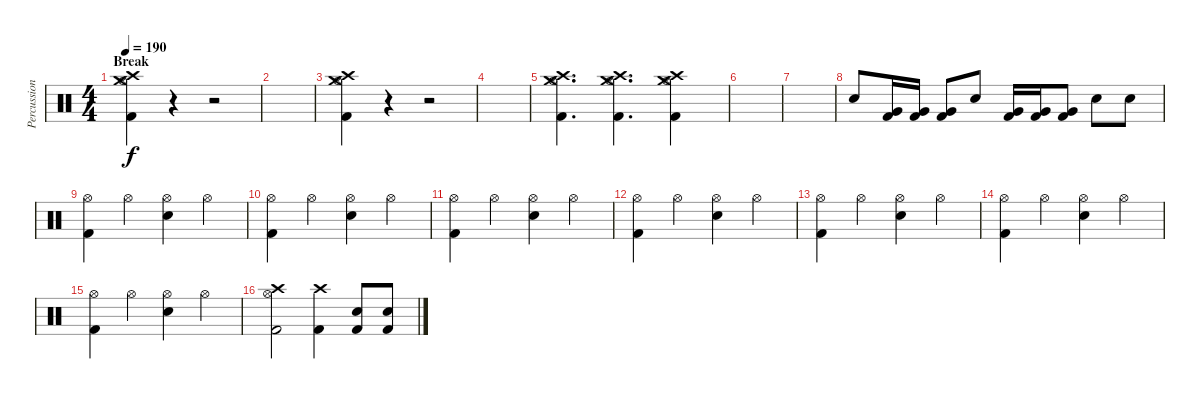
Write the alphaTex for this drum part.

\track ("Percussion" "Percussion") {instrument percussion}
\staff {score}
\articulation defaults
\ts (4 4)
\section ("" "Break")
\tempo 190
\clef neutral
\ks c
("Hi-Hat (open)" "Kick (hit) 2" "Crash medium (hit)" "Crash high (hit)").4{dy f} r.4 r.2 |
|
("Hi-Hat (open)" "Kick (hit) 2" "Crash medium (hit)" "Crash high (hit)").4 r.4 r.2 |
|
("Hi-Hat (open)" "Kick (hit) 2" "Crash medium (hit)" "Crash high (hit)").4{d} ("Hi-Hat (open)" "Kick (hit) 2" "Crash medium (hit)" "Crash high (hit)").4{d} ("Hi-Hat (open)" "Kick (hit) 2" "Crash medium (hit)" "Crash high (hit)").4 |
|
|
"Snare (hit) 2".8 ("Very Low Tom (hit)" "Kick (hit) 2").16 ("Very Low Tom (hit)" "Kick (hit) 2").16 ("Very Low Tom (hit)" "Kick (hit) 2").8 "Snare (hit) 2".8 ("Very Low Tom (hit)" "Kick (hit) 2").16 ("Very Low Tom (hit)" "Kick (hit) 2").16 ("Very Low Tom (hit)" "Kick (hit) 2").8 "Snare (hit) 2".8 "Snare (hit) 2".8 |
("Hi-Hat (open)" "Kick (hit) 2").4 "Hi-Hat (open)".4 ("Hi-Hat (open)" "Snare (hit) 2").4 "Hi-Hat (open)".4 |
("Hi-Hat (open)" "Kick (hit) 2").4 "Hi-Hat (open)".4 ("Hi-Hat (open)" "Snare (hit) 2").4 "Hi-Hat (open)".4 |
("Hi-Hat (open)" "Kick (hit) 2").4 "Hi-Hat (open)".4 ("Hi-Hat (open)" "Snare (hit) 2").4 "Hi-Hat (open)".4 |
("Hi-Hat (open)" "Kick (hit) 2").4 "Hi-Hat (open)".4 ("Hi-Hat (open)" "Snare (hit) 2").4 "Hi-Hat (open)".4 |
("Hi-Hat (open)" "Kick (hit) 2").4 "Hi-Hat (open)".4 ("Hi-Hat (open)" "Snare (hit) 2").4 "Hi-Hat (open)".4 |
("Hi-Hat (open)" "Kick (hit) 2").4 "Hi-Hat (open)".4 ("Hi-Hat (open)" "Snare (hit) 2").4 "Hi-Hat (open)".4 |
("Hi-Hat (open)" "Kick (hit) 2").4 "Hi-Hat (open)".4 ("Hi-Hat (open)" "Snare (hit) 2").4 "Hi-Hat (open)".4 |
("Hi-Hat (open)" "Kick (hit) 2" "Crash high (hit)").2 ("Kick (hit) 2" "Crash high (hit)").4 ("Snare (hit) 2" "Kick (hit) 2").8 ("Snare (hit) 2" "Kick (hit) 2").8
